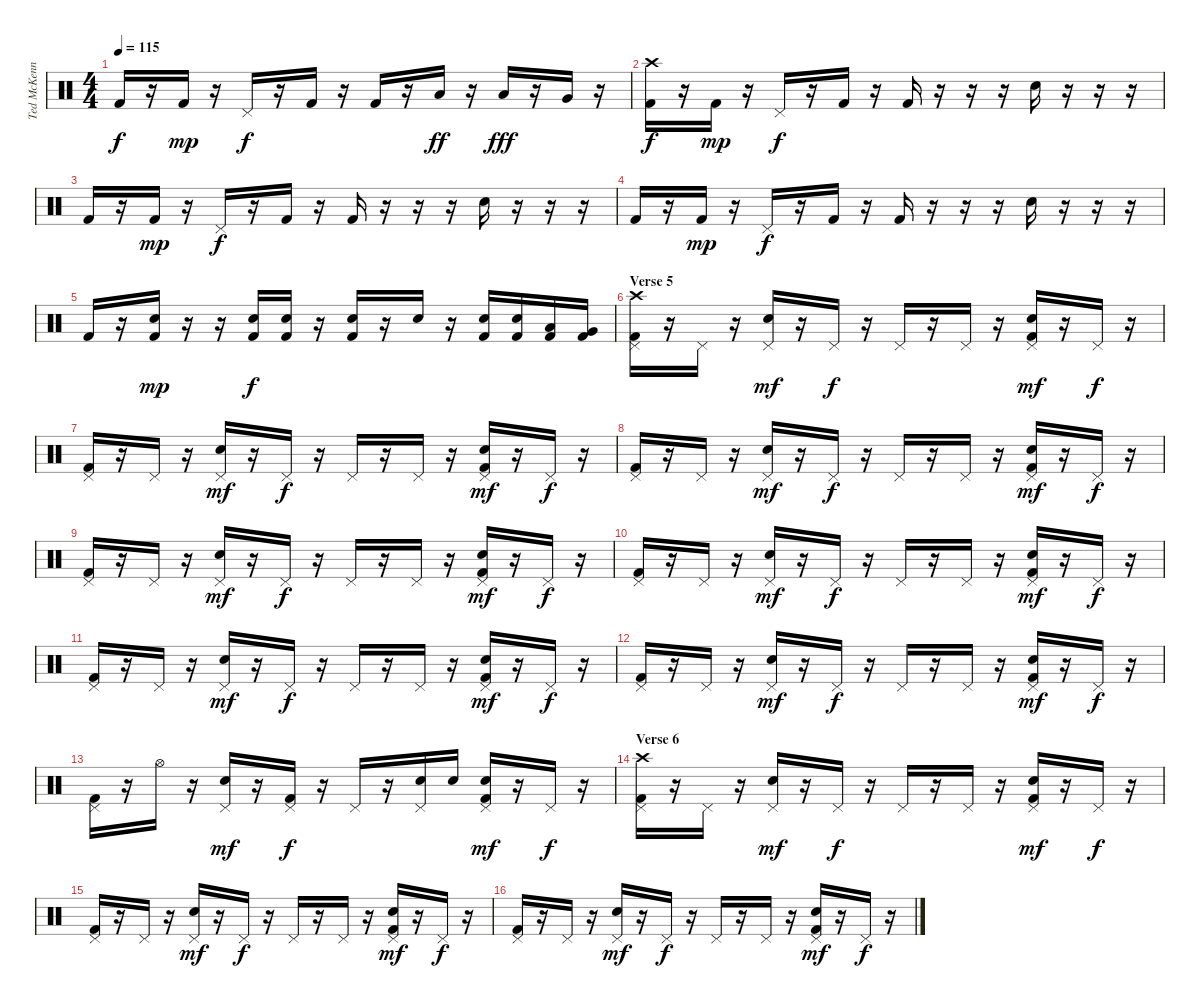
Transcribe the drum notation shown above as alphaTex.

\track ("Ted McKenna" "Ted McKenn") {instrument percussion}
\staff {score}
\articulation defaults
\ts (4 4)
\tempo 115
\clef neutral
\ks c "Kick (hit) 2".16{dy f}
r.16 "Kick (hit) 2".16{dy mp} r.16 "Pedal Hi-Hat (hit)".16{dy f} r.16 "Kick (hit) 2".16 r.16 "Kick (hit) 2".16 r.16 "Low Floor Tom (hit)".16{dy ff} r.16 "Low Tom (hit)".16{dy fff} r.16 "Very Low Tom (hit)".16 r.16 |
("Crash high (hit)" "Kick (hit) 2").16{dy f} r.16 "Kick (hit) 2".16{dy mp} r.16 "Pedal Hi-Hat (hit)".16{dy f} r.16 "Kick (hit) 2".16 r.16 "Kick (hit) 2".16 r.16 r.16 r.16 "Snare (hit) 2".16 r.16 r.16 r.16 |
"Kick (hit) 2".16 r.16 "Kick (hit) 2".16{dy mp} r.16 "Pedal Hi-Hat (hit)".16{dy f} r.16 "Kick (hit) 2".16 r.16 "Kick (hit) 2".16 r.16 r.16 r.16 "Snare (hit) 2".16 r.16 r.16 r.16 |
"Kick (hit) 2".16 r.16 "Kick (hit) 2".16{dy mp} r.16 "Pedal Hi-Hat (hit)".16{dy f} r.16 "Kick (hit) 2".16 r.16 "Kick (hit) 2".16 r.16 r.16 r.16 "Snare (hit) 2".16 r.16 r.16 r.16 |
"Kick (hit) 2".16 r.16 ("Electric Snare (hit)" "Kick (hit) 2").16{dy mp} r.16 r.16 ("Electric Snare (hit)" "Kick (hit) 2").16{dy f} ("Electric Snare (hit)" "Kick (hit) 2").16 r.16 ("Electric Snare (hit)" "Kick (hit) 2").16 r.16 "Electric Snare (hit)".16 r.16 ("Electric Snare (hit)" "Kick (hit) 2").16 ("Electric Snare (hit)" "Kick (hit) 2").16 ("Low Tom (hit)" "Kick (hit) 2").16 ("Very Low Tom (hit)" "Kick (hit) 2").16 |
\section ("" "Verse 5")
("Crash high (hit)" "Pedal Hi-Hat (hit)" "Kick (hit) 2").16 r.16 "Pedal Hi-Hat (hit)".16 r.16 ("Electric Snare (hit)" "Pedal Hi-Hat (hit)").16{dy mf} r.16 "Pedal Hi-Hat (hit)".16{dy f} r.16 "Pedal Hi-Hat (hit)".16 r.16 "Pedal Hi-Hat (hit)".16 r.16 ("Electric Snare (hit)" "Pedal Hi-Hat (hit)" "Kick (hit) 2").16{dy mf} r.16 "Pedal Hi-Hat (hit)".16{dy f} r.16 |
("Pedal Hi-Hat (hit)" "Kick (hit) 2").16 r.16 "Pedal Hi-Hat (hit)".16 r.16 ("Electric Snare (hit)" "Pedal Hi-Hat (hit)").16{dy mf} r.16 "Pedal Hi-Hat (hit)".16{dy f} r.16 "Pedal Hi-Hat (hit)".16 r.16 "Pedal Hi-Hat (hit)".16 r.16 ("Electric Snare (hit)" "Pedal Hi-Hat (hit)" "Kick (hit) 2").16{dy mf} r.16 "Pedal Hi-Hat (hit)".16{dy f} r.16 |
("Pedal Hi-Hat (hit)" "Kick (hit) 2").16 r.16 "Pedal Hi-Hat (hit)".16 r.16 ("Electric Snare (hit)" "Pedal Hi-Hat (hit)").16{dy mf} r.16 "Pedal Hi-Hat (hit)".16{dy f} r.16 "Pedal Hi-Hat (hit)".16 r.16 "Pedal Hi-Hat (hit)".16 r.16 ("Electric Snare (hit)" "Pedal Hi-Hat (hit)" "Kick (hit) 2").16{dy mf} r.16 "Pedal Hi-Hat (hit)".16{dy f} r.16 |
("Pedal Hi-Hat (hit)" "Kick (hit) 2").16 r.16 "Pedal Hi-Hat (hit)".16 r.16 ("Electric Snare (hit)" "Pedal Hi-Hat (hit)").16{dy mf} r.16 "Pedal Hi-Hat (hit)".16{dy f} r.16 "Pedal Hi-Hat (hit)".16 r.16 "Pedal Hi-Hat (hit)".16 r.16 ("Electric Snare (hit)" "Pedal Hi-Hat (hit)" "Kick (hit) 2").16{dy mf} r.16 "Pedal Hi-Hat (hit)".16{dy f} r.16 |
("Pedal Hi-Hat (hit)" "Kick (hit) 2").16 r.16 "Pedal Hi-Hat (hit)".16 r.16 ("Electric Snare (hit)" "Pedal Hi-Hat (hit)").16{dy mf} r.16 "Pedal Hi-Hat (hit)".16{dy f} r.16 "Pedal Hi-Hat (hit)".16 r.16 "Pedal Hi-Hat (hit)".16 r.16 ("Electric Snare (hit)" "Pedal Hi-Hat (hit)" "Kick (hit) 2").16{dy mf} r.16 "Pedal Hi-Hat (hit)".16{dy f} r.16 |
("Pedal Hi-Hat (hit)" "Kick (hit) 2").16 r.16 "Pedal Hi-Hat (hit)".16 r.16 ("Electric Snare (hit)" "Pedal Hi-Hat (hit)").16{dy mf} r.16 "Pedal Hi-Hat (hit)".16{dy f} r.16 "Pedal Hi-Hat (hit)".16 r.16 "Pedal Hi-Hat (hit)".16 r.16 ("Electric Snare (hit)" "Pedal Hi-Hat (hit)" "Kick (hit) 2").16{dy mf} r.16 "Pedal Hi-Hat (hit)".16{dy f} r.16 |
("Pedal Hi-Hat (hit)" "Kick (hit) 2").16 r.16 "Pedal Hi-Hat (hit)".16 r.16 ("Electric Snare (hit)" "Pedal Hi-Hat (hit)").16{dy mf} r.16 "Pedal Hi-Hat (hit)".16{dy f} r.16 "Pedal Hi-Hat (hit)".16 r.16 "Pedal Hi-Hat (hit)".16 r.16 ("Electric Snare (hit)" "Pedal Hi-Hat (hit)" "Kick (hit) 2").16{dy mf} r.16 "Pedal Hi-Hat (hit)".16{dy f} r.16 |
("Pedal Hi-Hat (hit)" "Kick (hit) 2").16 r.16 "Hi-Hat (open)".16 r.16 ("Electric Snare (hit)" "Pedal Hi-Hat (hit)").16{dy mf} r.16 ("Pedal Hi-Hat (hit)" "Kick (hit) 2").16{dy f} r.16 "Pedal Hi-Hat (hit)".16 r.16 ("Electric Snare (hit)" "Pedal Hi-Hat (hit)").16 "Electric Snare (hit)".16 ("Electric Snare (hit)" "Pedal Hi-Hat (hit)" "Kick (hit) 2").16{dy mf} r.16 "Pedal Hi-Hat (hit)".16{dy f} r.16 |
\section ("" "Verse 6")
("Crash high (hit)" "Pedal Hi-Hat (hit)" "Kick (hit) 2").16 r.16 "Pedal Hi-Hat (hit)".16 r.16 ("Electric Snare (hit)" "Pedal Hi-Hat (hit)").16{dy mf} r.16 "Pedal Hi-Hat (hit)".16{dy f} r.16 "Pedal Hi-Hat (hit)".16 r.16 "Pedal Hi-Hat (hit)".16 r.16 ("Electric Snare (hit)" "Pedal Hi-Hat (hit)" "Kick (hit) 2").16{dy mf} r.16 "Pedal Hi-Hat (hit)".16{dy f} r.16 |
("Pedal Hi-Hat (hit)" "Kick (hit) 2").16 r.16 "Pedal Hi-Hat (hit)".16 r.16 ("Electric Snare (hit)" "Pedal Hi-Hat (hit)").16{dy mf} r.16 "Pedal Hi-Hat (hit)".16{dy f} r.16 "Pedal Hi-Hat (hit)".16 r.16 "Pedal Hi-Hat (hit)".16 r.16 ("Electric Snare (hit)" "Pedal Hi-Hat (hit)" "Kick (hit) 2").16{dy mf} r.16 "Pedal Hi-Hat (hit)".16{dy f} r.16 |
("Pedal Hi-Hat (hit)" "Kick (hit) 2").16 r.16 "Pedal Hi-Hat (hit)".16 r.16 ("Electric Snare (hit)" "Pedal Hi-Hat (hit)").16{dy mf} r.16 "Pedal Hi-Hat (hit)".16{dy f} r.16 "Pedal Hi-Hat (hit)".16 r.16 "Pedal Hi-Hat (hit)".16 r.16 ("Electric Snare (hit)" "Pedal Hi-Hat (hit)" "Kick (hit) 2").16{dy mf} r.16 "Pedal Hi-Hat (hit)".16{dy f} r.16
